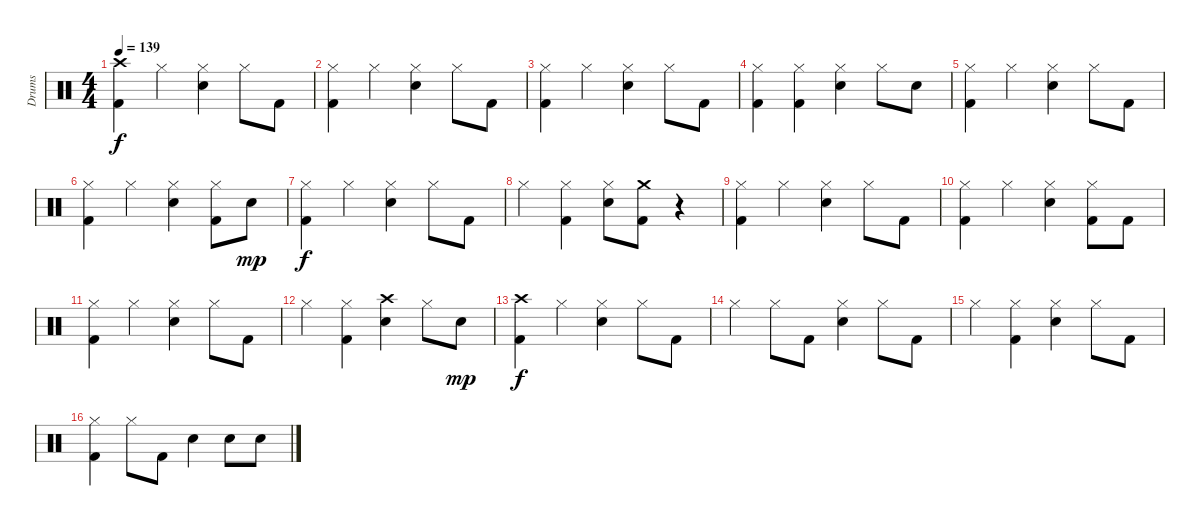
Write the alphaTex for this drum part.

\track ("Drums" "Drums") {instrument percussion}
\staff {score}
\articulation defaults
\ts (4 4)
\tempo 139
\clef neutral
\ks c
("Crash high (hit)" "Kick (hit) 2").4{dy f} "Hi-Hat (closed)".4 ("Hi-Hat (closed)" "Snare (hit) 2").4 "Hi-Hat (closed)".8 "Kick (hit) 2".8 |
("Hi-Hat (closed)" "Kick (hit) 2").4 "Hi-Hat (closed)".4 ("Hi-Hat (closed)" "Snare (hit) 2").4 "Hi-Hat (closed)".8 "Kick (hit) 2".8 |
("Hi-Hat (closed)" "Kick (hit) 2").4 "Hi-Hat (closed)".4 ("Hi-Hat (closed)" "Snare (hit) 2").4 "Hi-Hat (closed)".8 "Kick (hit) 2".8 |
("Hi-Hat (closed)" "Kick (hit) 2").4 ("Hi-Hat (closed)" "Kick (hit) 2").4 ("Hi-Hat (closed)" "Snare (hit) 2").4 "Hi-Hat (closed)".8 "Snare (hit) 2".8 |
("Hi-Hat (closed)" "Kick (hit) 2").4 "Hi-Hat (closed)".4 ("Hi-Hat (closed)" "Snare (hit) 2").4 "Hi-Hat (closed)".8 "Kick (hit) 2".8 |
("Hi-Hat (closed)" "Kick (hit) 2").4 "Hi-Hat (closed)".4 ("Hi-Hat (closed)" "Snare (hit) 2").4 ("Hi-Hat (closed)" "Kick (hit) 2").8 "Snare (hit) 2".8{dy mp} |
("Hi-Hat (closed)" "Kick (hit) 2").4{dy f} "Hi-Hat (closed)".4 ("Hi-Hat (closed)" "Snare (hit) 2").4 "Hi-Hat (closed)".8 "Kick (hit) 2".8 |
"Hi-Hat (closed)".4 ("Hi-Hat (closed)" "Kick (hit) 2").4 ("Hi-Hat (closed)" "Snare (hit) 2").8 ("Crash medium (hit)" "Kick (hit) 2").8 r.4 |
("Hi-Hat (closed)" "Kick (hit) 2").4 "Hi-Hat (closed)".4 ("Hi-Hat (closed)" "Snare (hit) 2").4 "Hi-Hat (closed)".8 "Kick (hit) 2".8 |
("Hi-Hat (closed)" "Kick (hit) 2").4 "Hi-Hat (closed)".4 ("Hi-Hat (closed)" "Snare (hit) 2").4 ("Hi-Hat (closed)" "Kick (hit) 2").8 "Kick (hit) 2".8 |
("Hi-Hat (closed)" "Kick (hit) 2").4 "Hi-Hat (closed)".4 ("Hi-Hat (closed)" "Snare (hit) 2").4 "Hi-Hat (closed)".8 "Kick (hit) 2".8 |
"Hi-Hat (closed)".4 ("Hi-Hat (closed)" "Kick (hit) 2").4 ("Crash high (hit)" "Snare (hit) 2").4 "Hi-Hat (closed)".8 "Snare (hit) 2".8{dy mp} |
("Crash high (hit)" "Kick (hit) 2").4{dy f} "Hi-Hat (closed)".4 ("Hi-Hat (closed)" "Snare (hit) 2").4 "Hi-Hat (closed)".8 "Kick (hit) 2".8 |
"Hi-Hat (closed)".4 "Hi-Hat (closed)".8 "Kick (hit) 2".8 ("Hi-Hat (closed)" "Snare (hit) 2").4 "Hi-Hat (closed)".8 "Kick (hit) 2".8 |
"Hi-Hat (closed)".4 ("Hi-Hat (closed)" "Kick (hit) 2").4 ("Hi-Hat (closed)" "Snare (hit) 2").4 "Hi-Hat (closed)".8 "Kick (hit) 2".8 |
("Hi-Hat (closed)" "Kick (hit) 2").4 "Hi-Hat (closed)".8 "Kick (hit) 2".8 "Snare (hit) 2".4 "Snare (hit) 2".8 "Snare (hit) 2".8
